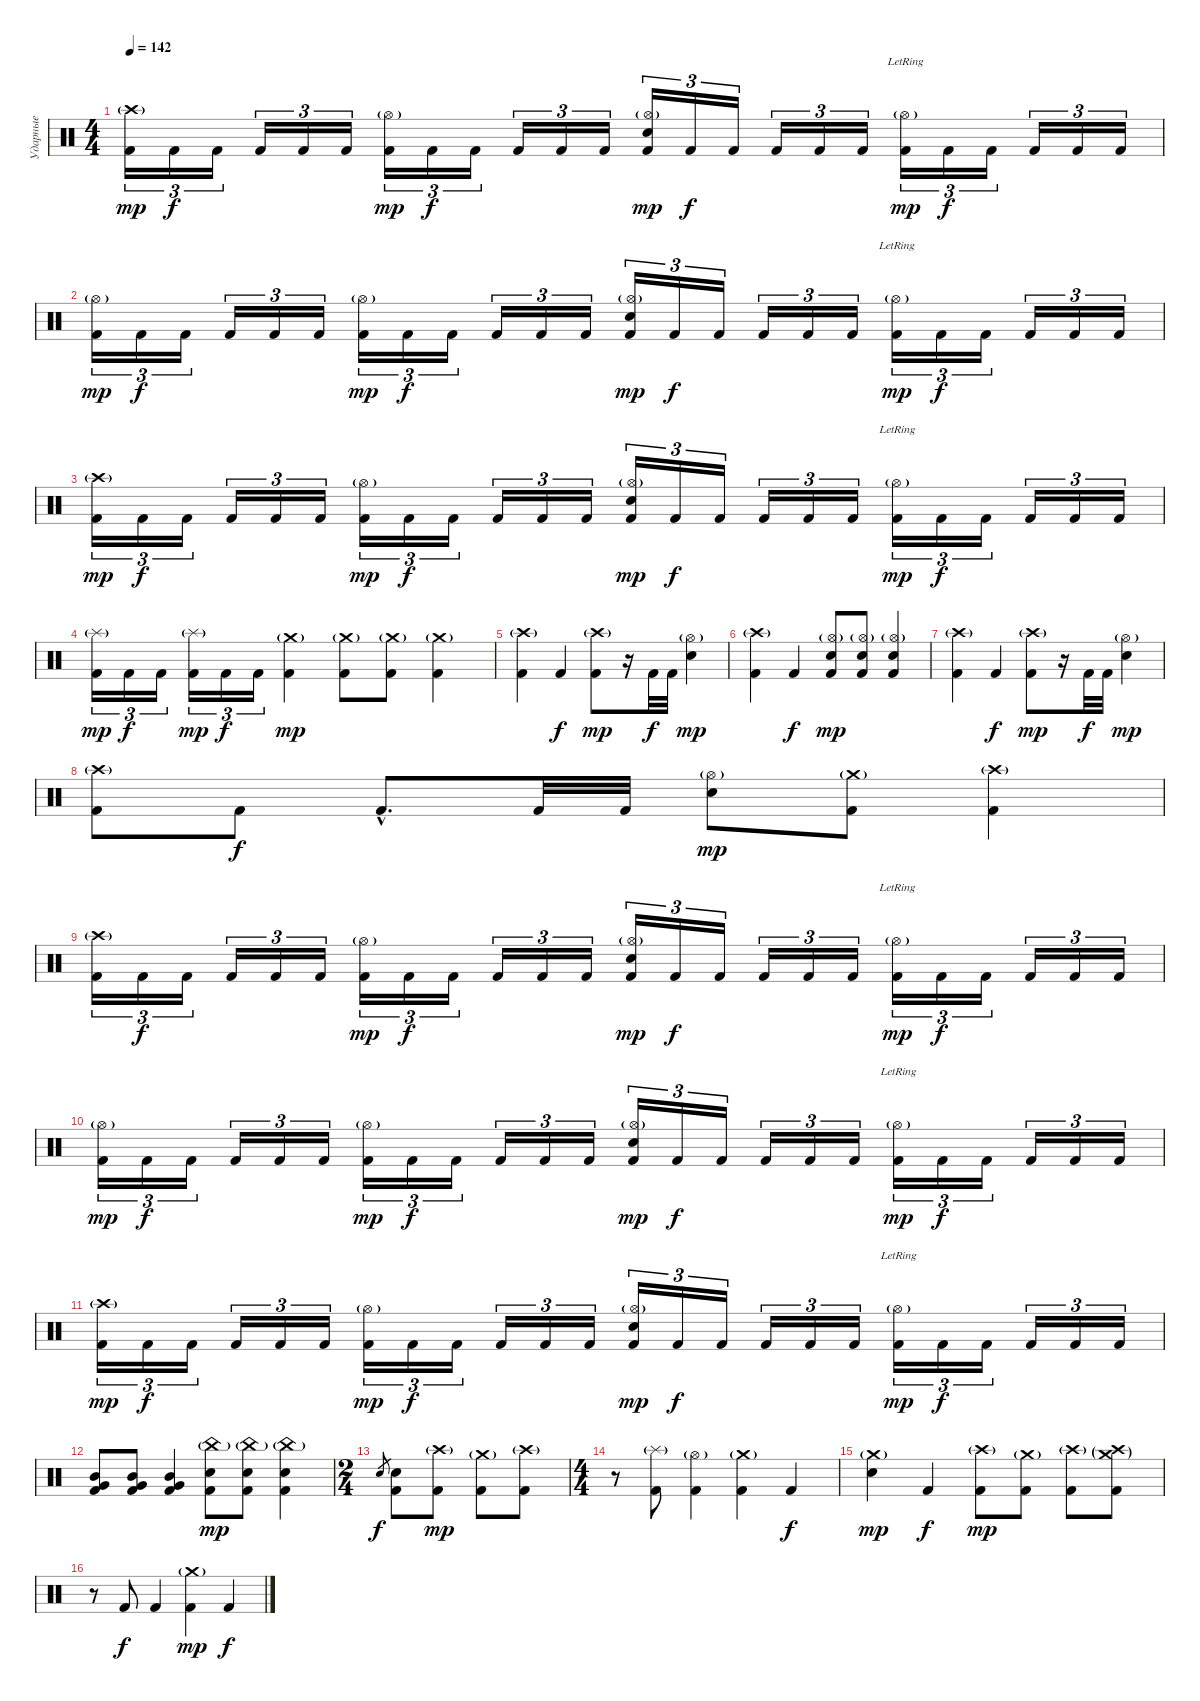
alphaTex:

\track ("Ударные" "Ударные") {instrument percussion}
\staff {score}
\articulation defaults
\ts (4 4)
\tempo 142
\clef neutral
\ks c
("Crash high (hit)"{g} "Kick (hit) 2").16{tu (3 2) dy mp} "Kick (hit) 2".16{tu (3 2) dy f} "Kick (hit) 2".16{tu (3 2)} "Kick (hit) 2".16{tu (3 2)} "Kick (hit) 2".16{tu (3 2)} "Kick (hit) 2".16{tu (3 2)} ("Hi-Hat (open)"{g} "Kick (hit) 2").16{tu (3 2) dy mp} "Kick (hit) 2".16{tu (3 2) dy f} "Kick (hit) 2".16{tu (3 2)} "Kick (hit) 2".16{tu (3 2)} "Kick (hit) 2".16{tu (3 2)} "Kick (hit) 2".16{tu (3 2)} ("Hi-Hat (open)"{g} "Electric Snare (hit)" "Kick (hit) 2").16{tu (3 2) dy mp} "Kick (hit) 2".16{tu (3 2) dy f} "Kick (hit) 2".16{tu (3 2)} "Kick (hit) 2".16{tu (3 2)} "Kick (hit) 2".16{tu (3 2)} "Kick (hit) 2".16{tu (3 2)} ("Hi-Hat (open)"{g lr} "Kick (hit) 2").16{tu (3 2) dy mp} "Kick (hit) 2".16{tu (3 2) dy f} "Kick (hit) 2".16{tu (3 2)} "Kick (hit) 2".16{tu (3 2)} "Kick (hit) 2".16{tu (3 2)} "Kick (hit) 2".16{tu (3 2)} |
("Hi-Hat (open)"{g} "Kick (hit) 2").16{tu (3 2) dy mp} "Kick (hit) 2".16{tu (3 2) dy f} "Kick (hit) 2".16{tu (3 2)} "Kick (hit) 2".16{tu (3 2)} "Kick (hit) 2".16{tu (3 2)} "Kick (hit) 2".16{tu (3 2)} ("Hi-Hat (open)"{g} "Kick (hit) 2").16{tu (3 2) dy mp} "Kick (hit) 2".16{tu (3 2) dy f} "Kick (hit) 2".16{tu (3 2)} "Kick (hit) 2".16{tu (3 2)} "Kick (hit) 2".16{tu (3 2)} "Kick (hit) 2".16{tu (3 2)} ("Hi-Hat (open)"{g} "Electric Snare (hit)" "Kick (hit) 2").16{tu (3 2) dy mp} "Kick (hit) 2".16{tu (3 2) dy f} "Kick (hit) 2".16{tu (3 2)} "Kick (hit) 2".16{tu (3 2)} "Kick (hit) 2".16{tu (3 2)} "Kick (hit) 2".16{tu (3 2)} ("Hi-Hat (open)"{g lr} "Kick (hit) 2").16{tu (3 2) dy mp} "Kick (hit) 2".16{tu (3 2) dy f} "Kick (hit) 2".16{tu (3 2)} "Kick (hit) 2".16{tu (3 2)} "Kick (hit) 2".16{tu (3 2)} "Kick (hit) 2".16{tu (3 2)} |
("Crash high (hit)"{g} "Kick (hit) 2").16{tu (3 2) dy mp} "Kick (hit) 2".16{tu (3 2) dy f} "Kick (hit) 2".16{tu (3 2)} "Kick (hit) 2".16{tu (3 2)} "Kick (hit) 2".16{tu (3 2)} "Kick (hit) 2".16{tu (3 2)} ("Hi-Hat (open)"{g} "Kick (hit) 2").16{tu (3 2) dy mp} "Kick (hit) 2".16{tu (3 2) dy f} "Kick (hit) 2".16{tu (3 2)} "Kick (hit) 2".16{tu (3 2)} "Kick (hit) 2".16{tu (3 2)} "Kick (hit) 2".16{tu (3 2)} ("Hi-Hat (open)"{g} "Electric Snare (hit)" "Kick (hit) 2").16{tu (3 2) dy mp} "Kick (hit) 2".16{tu (3 2) dy f} "Kick (hit) 2".16{tu (3 2)} "Kick (hit) 2".16{tu (3 2)} "Kick (hit) 2".16{tu (3 2)} "Kick (hit) 2".16{tu (3 2)} ("Hi-Hat (open)"{g lr} "Kick (hit) 2").16{tu (3 2) dy mp} "Kick (hit) 2".16{tu (3 2) dy f} "Kick (hit) 2".16{tu (3 2)} "Kick (hit) 2".16{tu (3 2)} "Kick (hit) 2".16{tu (3 2)} "Kick (hit) 2".16{tu (3 2)} |
("Splash (hit)"{g} "Kick (hit) 2").16{tu (3 2) dy mp} "Kick (hit) 2".16{tu (3 2) dy f} "Kick (hit) 2".16{tu (3 2)} ("Splash (hit)"{g} "Kick (hit) 2").16{tu (3 2) dy mp} "Kick (hit) 2".16{tu (3 2) dy f} "Kick (hit) 2".16{tu (3 2)} ("Crash medium (hit)"{g} "Kick (hit) 2").4{dy mp} ("Crash medium (hit)"{g} "Kick (hit) 2").8 ("Crash medium (hit)"{g} "Kick (hit) 2").8 ("Crash medium (hit)"{g} "Kick (hit) 2").4 |
("Crash high (hit)"{g} "Kick (hit) 2").4 "Kick (hit) 2".4{dy f} ("Crash high (hit)"{g} "Kick (hit) 2").8{dy mp} r.16 "Kick (hit) 2".32{dy f} "Kick (hit) 2".32 ("Hi-Hat (open)"{g} "Electric Snare (hit)").4{dy mp} |
("Crash high (hit)"{g} "Kick (hit) 2").4 "Kick (hit) 2".4{dy f} ("Hi-Hat (open)"{g} "Electric Snare (hit)" "Kick (hit) 2").8{dy mp} ("Hi-Hat (open)"{g} "Electric Snare (hit)" "Kick (hit) 2").8 ("Hi-Hat (open)"{g} "Electric Snare (hit)" "Kick (hit) 2").4 |
("Crash high (hit)"{g} "Kick (hit) 2").4 "Kick (hit) 2".4{dy f} ("Crash high (hit)"{g} "Kick (hit) 2").8{dy mp} r.16 "Kick (hit) 2".32{dy f} "Kick (hit) 2".32 ("Hi-Hat (open)"{g} "Electric Snare (hit)").4{dy mp} |
("Crash high (hit)"{g} "Kick (hit) 2").8 "Kick (hit) 2".8{dy f} "Kick (hit) 2"{hac}.8{d} "Kick (hit) 2".32 "Kick (hit) 2".32 ("Hi-Hat (open)"{g} "Electric Snare (hit)").8{dy mp} ("Crash medium (hit)"{g} "Kick (hit) 2").8 ("Crash high (hit)"{g} "Kick (hit) 2").4 |
("Crash high (hit)"{g} "Kick (hit) 2").16{tu (3 2)} "Kick (hit) 2".16{tu (3 2) dy f} "Kick (hit) 2".16{tu (3 2)} "Kick (hit) 2".16{tu (3 2)} "Kick (hit) 2".16{tu (3 2)} "Kick (hit) 2".16{tu (3 2)} ("Hi-Hat (open)"{g} "Kick (hit) 2").16{tu (3 2) dy mp} "Kick (hit) 2".16{tu (3 2) dy f} "Kick (hit) 2".16{tu (3 2)} "Kick (hit) 2".16{tu (3 2)} "Kick (hit) 2".16{tu (3 2)} "Kick (hit) 2".16{tu (3 2)} ("Hi-Hat (open)"{g} "Electric Snare (hit)" "Kick (hit) 2").16{tu (3 2) dy mp} "Kick (hit) 2".16{tu (3 2) dy f} "Kick (hit) 2".16{tu (3 2)} "Kick (hit) 2".16{tu (3 2)} "Kick (hit) 2".16{tu (3 2)} "Kick (hit) 2".16{tu (3 2)} ("Hi-Hat (open)"{g lr} "Kick (hit) 2").16{tu (3 2) dy mp} "Kick (hit) 2".16{tu (3 2) dy f} "Kick (hit) 2".16{tu (3 2)} "Kick (hit) 2".16{tu (3 2)} "Kick (hit) 2".16{tu (3 2)} "Kick (hit) 2".16{tu (3 2)} |
("Hi-Hat (open)"{g} "Kick (hit) 2").16{tu (3 2) dy mp} "Kick (hit) 2".16{tu (3 2) dy f} "Kick (hit) 2".16{tu (3 2)} "Kick (hit) 2".16{tu (3 2)} "Kick (hit) 2".16{tu (3 2)} "Kick (hit) 2".16{tu (3 2)} ("Hi-Hat (open)"{g} "Kick (hit) 2").16{tu (3 2) dy mp} "Kick (hit) 2".16{tu (3 2) dy f} "Kick (hit) 2".16{tu (3 2)} "Kick (hit) 2".16{tu (3 2)} "Kick (hit) 2".16{tu (3 2)} "Kick (hit) 2".16{tu (3 2)} ("Hi-Hat (open)"{g} "Electric Snare (hit)" "Kick (hit) 2").16{tu (3 2) dy mp} "Kick (hit) 2".16{tu (3 2) dy f} "Kick (hit) 2".16{tu (3 2)} "Kick (hit) 2".16{tu (3 2)} "Kick (hit) 2".16{tu (3 2)} "Kick (hit) 2".16{tu (3 2)} ("Hi-Hat (open)"{g lr} "Kick (hit) 2").16{tu (3 2) dy mp} "Kick (hit) 2".16{tu (3 2) dy f} "Kick (hit) 2".16{tu (3 2)} "Kick (hit) 2".16{tu (3 2)} "Kick (hit) 2".16{tu (3 2)} "Kick (hit) 2".16{tu (3 2)} |
("Crash high (hit)"{g} "Kick (hit) 2").16{tu (3 2) dy mp} "Kick (hit) 2".16{tu (3 2) dy f} "Kick (hit) 2".16{tu (3 2)} "Kick (hit) 2".16{tu (3 2)} "Kick (hit) 2".16{tu (3 2)} "Kick (hit) 2".16{tu (3 2)} ("Hi-Hat (open)"{g} "Kick (hit) 2").16{tu (3 2) dy mp} "Kick (hit) 2".16{tu (3 2) dy f} "Kick (hit) 2".16{tu (3 2)} "Kick (hit) 2".16{tu (3 2)} "Kick (hit) 2".16{tu (3 2)} "Kick (hit) 2".16{tu (3 2)} ("Hi-Hat (open)"{g} "Electric Snare (hit)" "Kick (hit) 2").16{tu (3 2) dy mp} "Kick (hit) 2".16{tu (3 2) dy f} "Kick (hit) 2".16{tu (3 2)} "Kick (hit) 2".16{tu (3 2)} "Kick (hit) 2".16{tu (3 2)} "Kick (hit) 2".16{tu (3 2)} ("Hi-Hat (open)"{g lr} "Kick (hit) 2").16{tu (3 2) dy mp} "Kick (hit) 2".16{tu (3 2) dy f} "Kick (hit) 2".16{tu (3 2)} "Kick (hit) 2".16{tu (3 2)} "Kick (hit) 2".16{tu (3 2)} "Kick (hit) 2".16{tu (3 2)} |
("Very Low Tom (hit)" "Mid Tom (hit)" "Kick (hit) 2").8 ("Very Low Tom (hit)" "Mid Tom (hit)" "Kick (hit) 2").8 ("Very Low Tom (hit)" "Mid Tom (hit)" "Kick (hit) 2").4 ("China (hit)"{g} "Electric Snare (hit)" "Kick (hit) 2").8{dy mp} ("China (hit)"{g} "Electric Snare (hit)" "Kick (hit) 2").8 ("China (hit)"{g} "Electric Snare (hit)" "Kick (hit) 2").4 |
\ts (2 4)
"Electric Snare (hit)".8{gr dy f} ("Electric Snare (hit)" "Kick (hit) 2").8 ("Crash high (hit)"{g} "Kick (hit) 2").8{dy mp} ("Crash medium (hit)"{g} "Kick (hit) 2").8 ("Crash high (hit)"{g} "Kick (hit) 2").8 |
\ts (4 4)
r.8 ("Splash (hit)"{g} "Kick (hit) 2").8 ("Hi-Hat (open)"{g} "Kick (hit) 2").4 ("Crash medium (hit)"{g} "Kick (hit) 2").4 "Kick (hit) 2".4{dy f} |
("Crash medium (hit)"{g} "Electric Snare (hit)").4{dy mp} "Kick (hit) 2".4{dy f} ("Crash high (hit)"{g} "Kick (hit) 2").8{dy mp} ("Crash medium (hit)"{g} "Kick (hit) 2").8 ("Crash high (hit)"{g} "Kick (hit) 2").8 ("Crash high (hit)"{g} "Crash medium (hit)"{g} "Kick (hit) 2").8 |
r.8 "Kick (hit) 2".8{dy f} "Kick (hit) 2".4 ("Crash medium (hit)"{g} "Kick (hit) 2").4{dy mp} "Kick (hit) 2".4{dy f}
